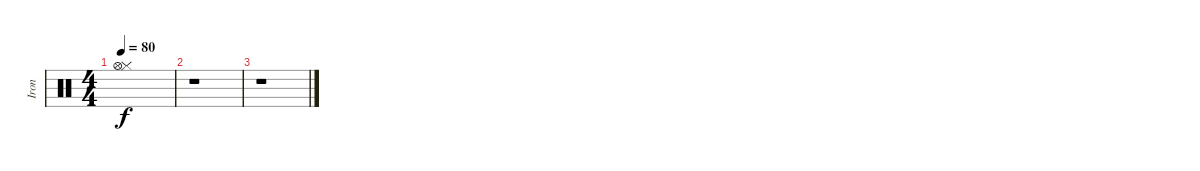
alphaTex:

\track ("Iron" "Iron") {instrument percussion}
\staff
\articulation defaults
\ts (4 4)
\tempo 80
\clef neutral
\ks c
("Hi-Hat (closed)" "Hi-Hat (open)").1{dy f} |
r.1 |
r.1
